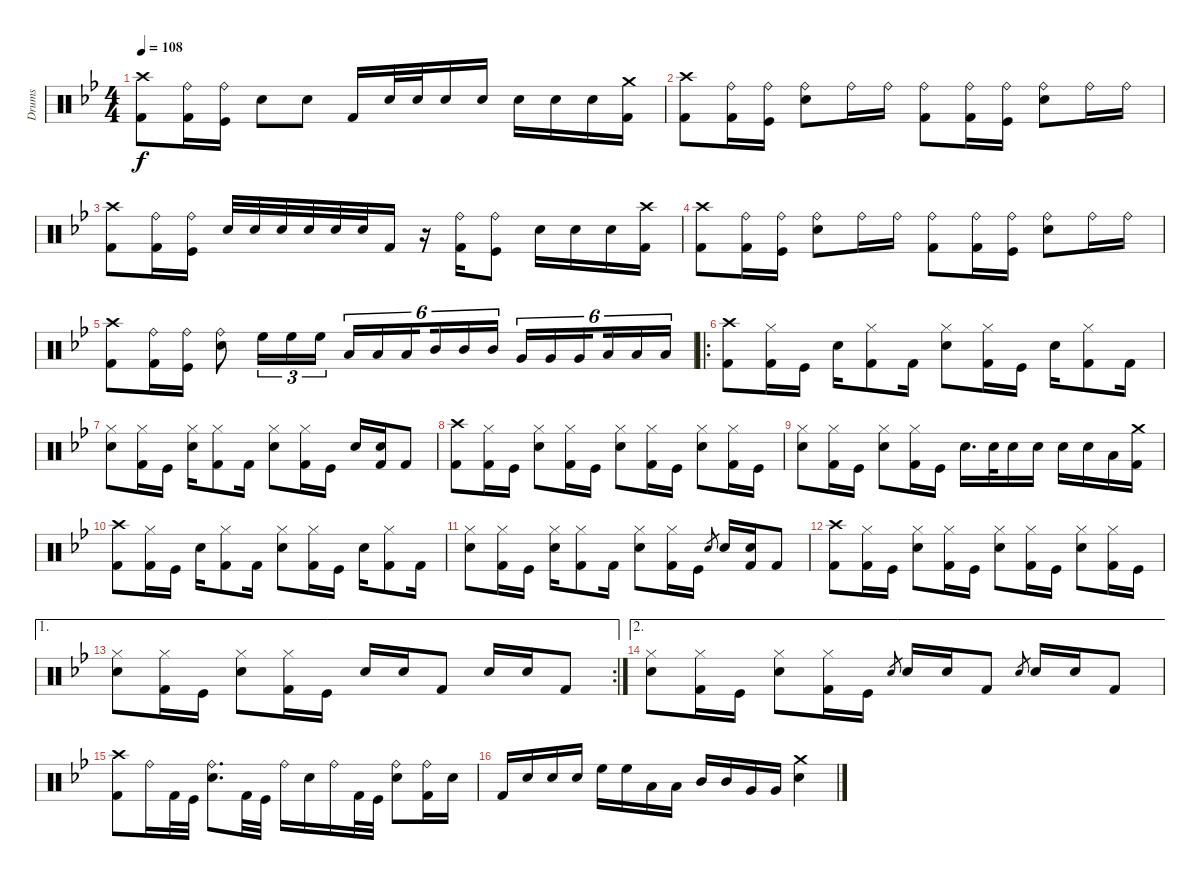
\track ("Drums" "Drums") {instrument percussion}
\staff {score}
\articulation defaults
\ts (4 4)
\tempo 108
\clef neutral
\ks bb
("Crash high (hit)" "Kick (hit) 2").8{dy f} ("Ride (bell)" "Kick (hit) 2").16 ("Ride (bell)" "Kick (hit)").16 "Electric Snare (hit)".8 "Electric Snare (hit)".8 "Kick (hit) 2".16 "Electric Snare (hit)".32 "Electric Snare (hit)".32 "Electric Snare (hit)".16 "Electric Snare (hit)".16 "Electric Snare (hit)".16 "Electric Snare (hit)".16 "Electric Snare (hit)".16 ("Crash medium (hit)" "Kick (hit) 2").16 |
("Crash high (hit)" "Kick (hit) 2").8 ("Ride (bell)" "Kick (hit) 2").16 ("Ride (bell)" "Kick (hit)").16 ("Ride (bell)" "Electric Snare (hit)").8 "Ride (bell)".16 "Ride (bell)".16 ("Ride (bell)" "Kick (hit) 2").8 ("Ride (bell)" "Kick (hit) 2").16 ("Ride (bell)" "Kick (hit)").16 ("Ride (bell)" "Electric Snare (hit)").8 "Ride (bell)".16 "Ride (bell)".16 |
("Crash high (hit)" "Kick (hit) 2").8 ("Ride (bell)" "Kick (hit) 2").16 ("Ride (bell)" "Kick (hit)").16 "Electric Snare (hit)".32 "Electric Snare (hit)".32 "Electric Snare (hit)".32 "Electric Snare (hit)".32 "Electric Snare (hit)".32 "Electric Snare (hit)".32 "Kick (hit) 2".16 r.16 ("Ride (bell)" "Kick (hit) 2").16 ("Ride (bell)" "Kick (hit)").8 "Electric Snare (hit)".16 "Electric Snare (hit)".16 "Electric Snare (hit)".16 ("Crash high (hit)" "Kick (hit) 2").16 |
("Crash high (hit)" "Kick (hit) 2").8 ("Ride (bell)" "Kick (hit) 2").16 ("Ride (bell)" "Kick (hit)").16 ("Ride (bell)" "Electric Snare (hit)").8 "Ride (bell)".16 "Ride (bell)".16 ("Ride (bell)" "Kick (hit) 2").8 ("Ride (bell)" "Kick (hit) 2").16 ("Ride (bell)" "Kick (hit)").16 ("Ride (bell)" "Electric Snare (hit)").8 "Ride (bell)".16 "Ride (bell)".16 |
("Crash high (hit)" "Kick (hit) 2").8 ("Ride (bell)" "Kick (hit) 2").16 ("Ride (bell)" "Kick (hit)").16 ("Ride (bell)" "Electric Snare (hit)").8 "High Floor Tom (hit)".16{tu (3 2)} "High Floor Tom (hit)".16{tu (3 2)} "High Floor Tom (hit)".16{tu (3 2)} "Low Tom (hit)".16{tu (6 4)} "Low Tom (hit)".16{tu (6 4)} "Low Tom (hit)".16{tu (6 4) beam splitsecondary} "Mid Tom (hit)".16{tu (6 4)} "Mid Tom (hit)".16{tu (6 4)} "Mid Tom (hit)".16{tu (6 4)} "Very Low Tom (hit)".16{tu (6 4)} "Very Low Tom (hit)".16{tu (6 4)} "Very Low Tom (hit)".16{tu (6 4) beam splitsecondary} "Low Floor Tom (hit)".16{tu (6 4)} "Low Floor Tom (hit)".16{tu (6 4)} "Low Floor Tom (hit)".16{tu (6 4)} |
\ro
("Crash high (hit)" "Kick (hit) 2").8 ("Hi-Hat (closed)" "Kick (hit) 2").16 "Kick (hit)".16 "Electric Snare (hit)".16 ("Hi-Hat (closed)" "Kick (hit) 2").8 "Kick (hit) 2".16 ("Hi-Hat (closed)" "Electric Snare (hit)").8 ("Hi-Hat (closed)" "Kick (hit) 2").16 "Kick (hit)".16 "Electric Snare (hit)".16 ("Hi-Hat (closed)" "Kick (hit) 2").8 "Kick (hit) 2".16 |
("Hi-Hat (closed)" "Electric Snare (hit)").8 ("Hi-Hat (closed)" "Kick (hit) 2").16 "Kick (hit)".16 ("Hi-Hat (closed)" "Electric Snare (hit)").16 ("Hi-Hat (closed)" "Kick (hit) 2").8 "Kick (hit) 2".16 ("Hi-Hat (closed)" "Electric Snare (hit)").8 ("Hi-Hat (closed)" "Kick (hit) 2").16 "Kick (hit)".16 "Electric Snare (hit)".16 ("Electric Snare (hit)" "Kick (hit) 2").16 "Kick (hit) 2".8 |
("Crash high (hit)" "Kick (hit) 2").8 ("Hi-Hat (closed)" "Kick (hit) 2").16 "Kick (hit)".16 ("Hi-Hat (closed)" "Electric Snare (hit)").8 ("Hi-Hat (closed)" "Kick (hit) 2").16 "Kick (hit)".16 ("Hi-Hat (closed)" "Electric Snare (hit)").8 ("Hi-Hat (closed)" "Kick (hit) 2").16 "Kick (hit)".16 ("Hi-Hat (closed)" "Electric Snare (hit)").8 ("Hi-Hat (closed)" "Kick (hit) 2").16 "Kick (hit)".16 |
("Hi-Hat (closed)" "Electric Snare (hit)").8 ("Hi-Hat (closed)" "Kick (hit) 2").16 "Kick (hit)".16 ("Hi-Hat (closed)" "Electric Snare (hit)").8 ("Hi-Hat (closed)" "Kick (hit) 2").16 "Kick (hit)".16 "Electric Snare (hit)".16{d} "Electric Snare (hit)".32 "Electric Snare (hit)".16 "Electric Snare (hit)".16 "Electric Snare (hit)".16 "Electric Snare (hit)".16 "Low Tom (hit)".16 ("Crash medium (hit)" "Kick (hit) 2").16 |
("Crash high (hit)" "Kick (hit) 2").8 ("Hi-Hat (closed)" "Kick (hit) 2").16 "Kick (hit)".16 "Electric Snare (hit)".16 ("Hi-Hat (closed)" "Kick (hit) 2").8 "Kick (hit) 2".16 ("Hi-Hat (closed)" "Electric Snare (hit)").8 ("Hi-Hat (closed)" "Kick (hit) 2").16 "Kick (hit)".16 "Electric Snare (hit)".16 ("Hi-Hat (closed)" "Kick (hit) 2").8 "Kick (hit) 2".16 |
("Hi-Hat (closed)" "Electric Snare (hit)").8 ("Hi-Hat (closed)" "Kick (hit) 2").16 "Kick (hit)".16 ("Hi-Hat (closed)" "Electric Snare (hit)").16 ("Hi-Hat (closed)" "Kick (hit) 2").8 "Kick (hit) 2".16 ("Hi-Hat (closed)" "Electric Snare (hit)").8 ("Hi-Hat (closed)" "Kick (hit) 2").16 "Kick (hit)".16 "Electric Snare (hit)".8{gr} "Electric Snare (hit)".16 ("Electric Snare (hit)" "Kick (hit) 2").16 "Kick (hit) 2".8 |
("Crash high (hit)" "Kick (hit) 2").8 ("Hi-Hat (closed)" "Kick (hit) 2").16 "Kick (hit)".16 ("Hi-Hat (closed)" "Electric Snare (hit)").8 ("Hi-Hat (closed)" "Kick (hit) 2").16 "Kick (hit)".16 ("Hi-Hat (closed)" "Electric Snare (hit)").8 ("Hi-Hat (closed)" "Kick (hit) 2").16 "Kick (hit)".16 ("Hi-Hat (closed)" "Electric Snare (hit)").8 ("Hi-Hat (closed)" "Kick (hit) 2").16 "Kick (hit)".16 |
\ae 1
\rc 2
("Hi-Hat (closed)" "Electric Snare (hit)").8 ("Hi-Hat (closed)" "Kick (hit) 2").16 "Kick (hit)".16 ("Hi-Hat (closed)" "Electric Snare (hit)").8 ("Hi-Hat (closed)" "Kick (hit) 2").16 "Kick (hit)".16 "Electric Snare (hit)".16 "Electric Snare (hit)".16 "Kick (hit) 2".8 "Electric Snare (hit)".16 "Electric Snare (hit)".16 "Kick (hit) 2".8 |
\ae 2
("Hi-Hat (closed)" "Electric Snare (hit)").8 ("Hi-Hat (closed)" "Kick (hit) 2").16 "Kick (hit)".16 ("Hi-Hat (closed)" "Electric Snare (hit)").8 ("Hi-Hat (closed)" "Kick (hit) 2").16 "Kick (hit)".16 "Electric Snare (hit)".8{gr} "Electric Snare (hit)".16 "Electric Snare (hit)".16 "Kick (hit) 2".8 "Electric Snare (hit)".8{gr} "Electric Snare (hit)".16 "Electric Snare (hit)".16 "Kick (hit) 2".8 |
("Crash high (hit)" "Kick (hit) 2").8 "Ride (bell)".16 "Kick (hit) 2".32 "Kick (hit)".32 ("Ride (bell)" "Electric Snare (hit)").8{d} "Kick (hit) 2".32 "Kick (hit)".32 "Ride (bell)".16 "Electric Snare (hit)".16 "Ride (bell)".16 "Kick (hit) 2".32 "Kick (hit)".32 ("Ride (bell)" "Electric Snare (hit)").8 ("Ride (bell)" "Kick (hit) 2").16 "Electric Snare (hit)".16 |
"Kick (hit) 2".16 "Electric Snare (hit)".16 "Electric Snare (hit)".16 "Electric Snare (hit)".16 "High Floor Tom (hit)".16 "High Floor Tom (hit)".16 "Low Tom (hit)".16 "Low Tom (hit)".16 "Mid Tom (hit)".16 "Mid Tom (hit)".16 "Very Low Tom (hit)".16 "Very Low Tom (hit)".16 ("Crash medium (hit)" "Electric Snare (hit)").4
